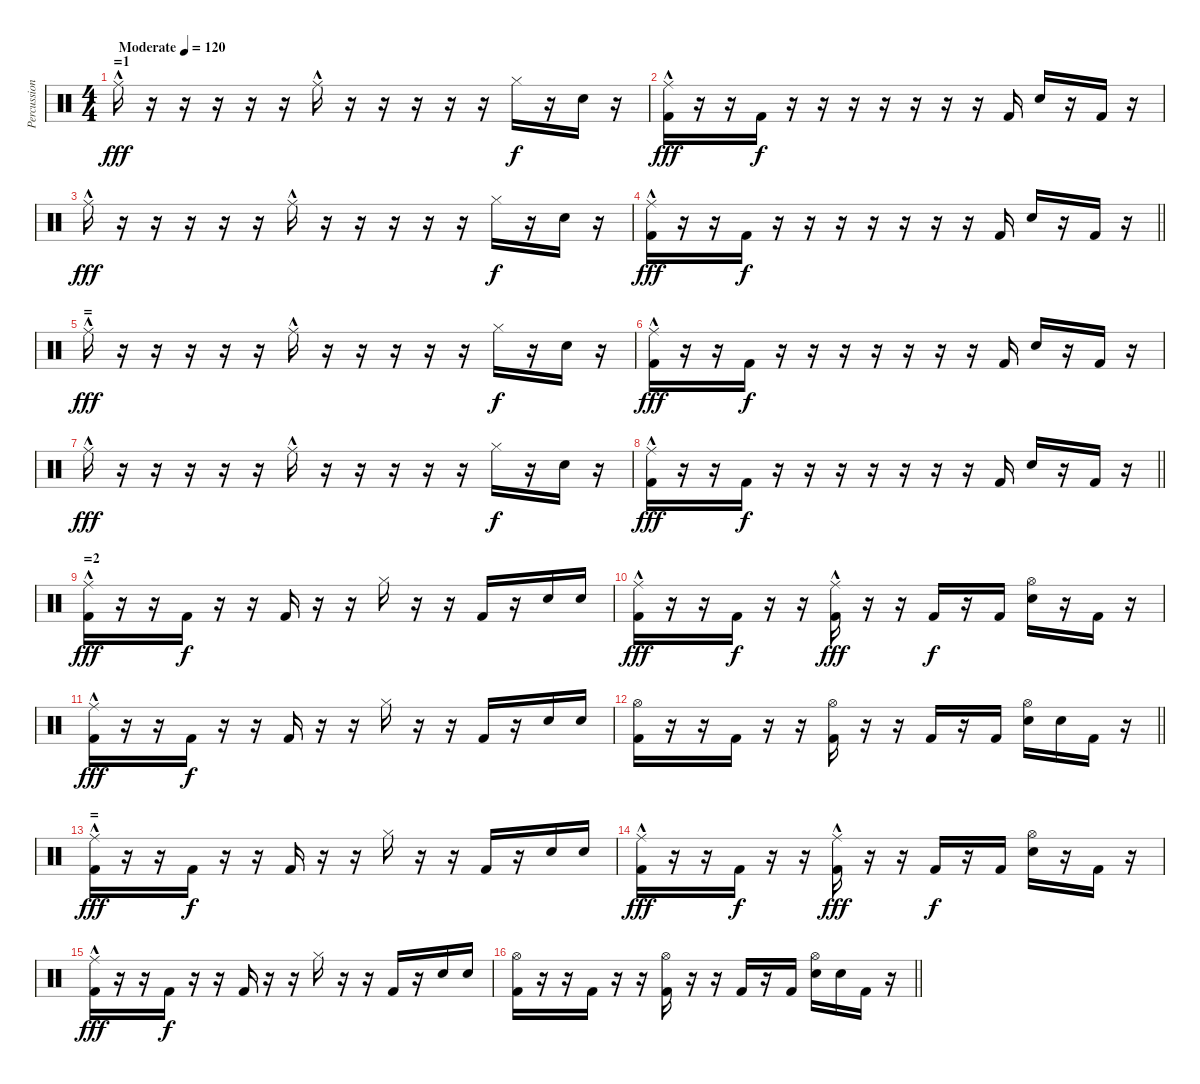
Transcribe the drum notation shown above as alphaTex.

\track ("Percussion" "Percussion") {instrument percussion}
\staff {score}
\articulation defaults
\ts (4 4)
\section ("" "=1")
\tempo (120 "Moderate")
\clef neutral
\ks c "Ride (middle)"{hac}.16{dy fff}
r.16 r.16 r.16 r.16 r.16 "Ride (middle)"{hac}.16 r.16 r.16 r.16 r.16 r.16 "Hi-Hat (closed)".16{dy f} r.16 "Electric Snare (hit)".16 r.16 |
("Kick (hit) 2" "Ride (middle)"{hac}).16{dy fff} r.16 r.16 "Kick (hit) 2".16{dy f} r.16 r.16 r.16 r.16 r.16 r.16 r.16 "Kick (hit) 2".16 "Electric Snare (hit)".16 r.16 "Kick (hit) 2".16 r.16 |
"Ride (middle)"{hac}.16{dy fff} r.16 r.16 r.16 r.16 r.16 "Ride (middle)"{hac}.16 r.16 r.16 r.16 r.16 r.16 "Hi-Hat (closed)".16{dy f} r.16 "Electric Snare (hit)".16 r.16 |
\barLineRight lightlight
("Kick (hit) 2" "Ride (middle)"{hac}).16{dy fff} r.16 r.16 "Kick (hit) 2".16{dy f} r.16 r.16 r.16 r.16 r.16 r.16 r.16 "Kick (hit) 2".16 "Electric Snare (hit)".16 r.16 "Kick (hit) 2".16 r.16 |
\section ("" "=")
"Ride (middle)"{hac}.16{dy fff} r.16 r.16 r.16 r.16 r.16 "Ride (middle)"{hac}.16 r.16 r.16 r.16 r.16 r.16 "Hi-Hat (closed)".16{dy f} r.16 "Electric Snare (hit)".16 r.16 |
("Kick (hit) 2" "Ride (middle)"{hac}).16{dy fff} r.16 r.16 "Kick (hit) 2".16{dy f} r.16 r.16 r.16 r.16 r.16 r.16 r.16 "Kick (hit) 2".16 "Electric Snare (hit)".16 r.16 "Kick (hit) 2".16 r.16 |
"Ride (middle)"{hac}.16{dy fff} r.16 r.16 r.16 r.16 r.16 "Ride (middle)"{hac}.16 r.16 r.16 r.16 r.16 r.16 "Hi-Hat (closed)".16{dy f} r.16 "Electric Snare (hit)".16 r.16 |
\barLineRight lightlight
("Kick (hit) 2" "Ride (middle)"{hac}).16{dy fff} r.16 r.16 "Kick (hit) 2".16{dy f} r.16 r.16 r.16 r.16 r.16 r.16 r.16 "Kick (hit) 2".16 "Electric Snare (hit)".16 r.16 "Kick (hit) 2".16 r.16 |
\section ("" "=2")
("Kick (hit) 2" "Ride (middle)"{hac}).16{dy fff} r.16 r.16 "Kick (hit) 2".16{dy f} r.16 r.16 "Kick (hit) 2".16 r.16 r.16 "Hi-Hat (closed)".16 r.16 r.16 "Kick (hit) 2".16 r.16 "Electric Snare (hit)".16 "Electric Snare (hit)".16 |
("Kick (hit) 2" "Ride (middle)"{hac}).16{dy fff} r.16 r.16 "Kick (hit) 2".16{dy f} r.16 r.16 ("Kick (hit) 2" "Ride (middle)"{hac}).16{dy fff} r.16 r.16 "Kick (hit) 2".16{dy f} r.16 "Kick (hit) 2".16 ("Electric Snare (hit)" "Hi-Hat (open)").16 r.16 "Kick (hit) 2".16 r.16 |
("Kick (hit) 2" "Ride (middle)"{hac}).16{dy fff} r.16 r.16 "Kick (hit) 2".16{dy f} r.16 r.16 "Kick (hit) 2".16 r.16 r.16 "Hi-Hat (closed)".16 r.16 r.16 "Kick (hit) 2".16 r.16 "Electric Snare (hit)".16 "Electric Snare (hit)".16 |
\barLineRight lightlight
("Kick (hit) 2" "Hi-Hat (open)").16 r.16 r.16 "Kick (hit) 2".16 r.16 r.16 ("Kick (hit) 2" "Hi-Hat (open)").16 r.16 r.16 "Kick (hit) 2".16 r.16 "Kick (hit) 2".16 ("Electric Snare (hit)" "Hi-Hat (open)").16 "Electric Snare (hit)".16 "Kick (hit) 2".16 r.16 |
\section ("" "=")
("Kick (hit) 2" "Ride (middle)"{hac}).16{dy fff} r.16 r.16 "Kick (hit) 2".16{dy f} r.16 r.16 "Kick (hit) 2".16 r.16 r.16 "Hi-Hat (closed)".16 r.16 r.16 "Kick (hit) 2".16 r.16 "Electric Snare (hit)".16 "Electric Snare (hit)".16 |
("Kick (hit) 2" "Ride (middle)"{hac}).16{dy fff} r.16 r.16 "Kick (hit) 2".16{dy f} r.16 r.16 ("Kick (hit) 2" "Ride (middle)"{hac}).16{dy fff} r.16 r.16 "Kick (hit) 2".16{dy f} r.16 "Kick (hit) 2".16 ("Electric Snare (hit)" "Hi-Hat (open)").16 r.16 "Kick (hit) 2".16 r.16 |
("Kick (hit) 2" "Ride (middle)"{hac}).16{dy fff} r.16 r.16 "Kick (hit) 2".16{dy f} r.16 r.16 "Kick (hit) 2".16 r.16 r.16 "Hi-Hat (closed)".16 r.16 r.16 "Kick (hit) 2".16 r.16 "Electric Snare (hit)".16 "Electric Snare (hit)".16 |
\barLineRight lightlight
("Kick (hit) 2" "Hi-Hat (open)").16 r.16 r.16 "Kick (hit) 2".16 r.16 r.16 ("Kick (hit) 2" "Hi-Hat (open)").16 r.16 r.16 "Kick (hit) 2".16 r.16 "Kick (hit) 2".16 ("Electric Snare (hit)" "Hi-Hat (open)").16 "Electric Snare (hit)".16 "Kick (hit) 2".16 r.16
